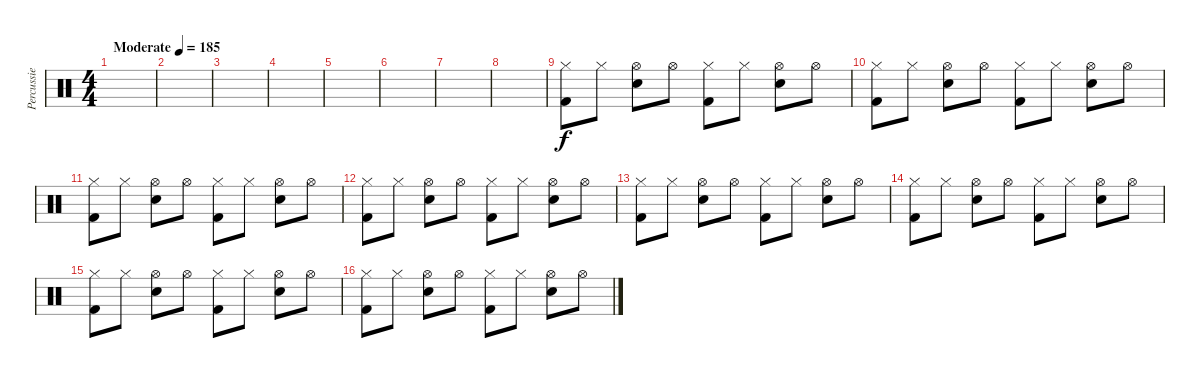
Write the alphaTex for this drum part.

\track ("Percussie" "Percussie") {instrument percussion}
\staff {score}
\articulation defaults
\ts (4 4)
\tempo (185 "Moderate")
\clef neutral
\ks c
|
|
|
|
|
|
|
|
("Hi-Hat (closed)" "Kick (hit) 2").8 "Hi-Hat (closed)".8 ("Hi-Hat (open)" "Snare (hit) 2").8 "Hi-Hat (open)".8 ("Hi-Hat (closed)" "Kick (hit) 2").8 "Hi-Hat (closed)".8 ("Hi-Hat (open)" "Snare (hit) 2").8 "Hi-Hat (open)".8 |
("Hi-Hat (closed)" "Kick (hit) 2").8 "Hi-Hat (closed)".8 ("Hi-Hat (open)" "Snare (hit) 2").8 "Hi-Hat (open)".8 ("Hi-Hat (closed)" "Kick (hit) 2").8 "Hi-Hat (closed)".8 ("Hi-Hat (open)" "Snare (hit) 2").8 "Hi-Hat (open)".8 |
("Hi-Hat (closed)" "Kick (hit) 2").8 "Hi-Hat (closed)".8 ("Hi-Hat (open)" "Snare (hit) 2").8 "Hi-Hat (open)".8 ("Hi-Hat (closed)" "Kick (hit) 2").8 "Hi-Hat (closed)".8 ("Hi-Hat (open)" "Snare (hit) 2").8 "Hi-Hat (open)".8 |
("Hi-Hat (closed)" "Kick (hit) 2").8 "Hi-Hat (closed)".8 ("Hi-Hat (open)" "Snare (hit) 2").8 "Hi-Hat (open)".8 ("Hi-Hat (closed)" "Kick (hit) 2").8 "Hi-Hat (closed)".8 ("Hi-Hat (open)" "Snare (hit) 2").8 "Hi-Hat (open)".8 |
("Hi-Hat (closed)" "Kick (hit) 2").8 "Hi-Hat (closed)".8 ("Hi-Hat (open)" "Snare (hit) 2").8 "Hi-Hat (open)".8 ("Hi-Hat (closed)" "Kick (hit) 2").8 "Hi-Hat (closed)".8 ("Hi-Hat (open)" "Snare (hit) 2").8 "Hi-Hat (open)".8 |
("Hi-Hat (closed)" "Kick (hit) 2").8 "Hi-Hat (closed)".8 ("Hi-Hat (open)" "Snare (hit) 2").8 "Hi-Hat (open)".8 ("Hi-Hat (closed)" "Kick (hit) 2").8 "Hi-Hat (closed)".8 ("Hi-Hat (open)" "Snare (hit) 2").8 "Hi-Hat (open)".8 |
("Hi-Hat (closed)" "Kick (hit) 2").8 "Hi-Hat (closed)".8 ("Hi-Hat (open)" "Snare (hit) 2").8 "Hi-Hat (open)".8 ("Hi-Hat (closed)" "Kick (hit) 2").8 "Hi-Hat (closed)".8 ("Hi-Hat (open)" "Snare (hit) 2").8 "Hi-Hat (open)".8 |
("Hi-Hat (closed)" "Kick (hit) 2").8 "Hi-Hat (closed)".8 ("Hi-Hat (open)" "Snare (hit) 2").8 "Hi-Hat (open)".8 ("Hi-Hat (closed)" "Kick (hit) 2").8 "Hi-Hat (closed)".8 ("Hi-Hat (open)" "Snare (hit) 2").8 "Hi-Hat (open)".8
